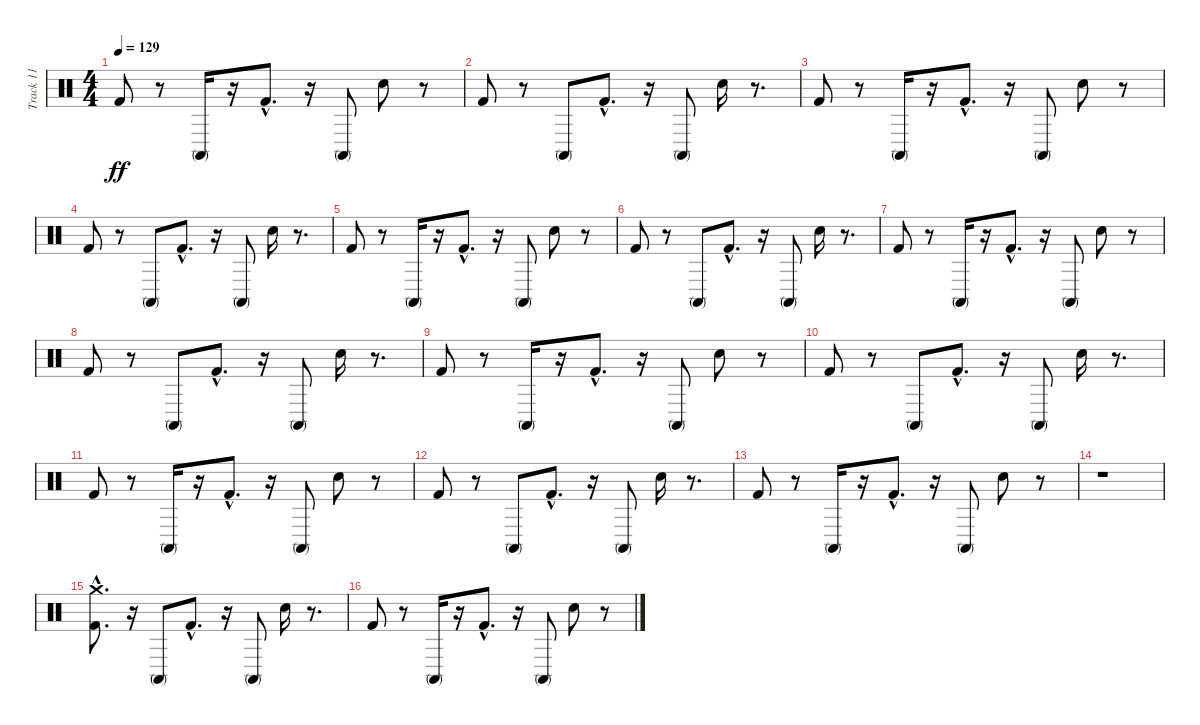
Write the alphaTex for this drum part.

\track ("Track 11" "Track 11") {instrument percussion}
\staff {score}
\articulation defaults
\ts (4 4)
\tempo 129
\clef neutral
\ks c "Kick (hit) 2".8{dy ff}
r.8 "Conga high (mute)".16 r.16 "Kick (hit) 2"{hac}.8{d} r.16 "Conga high (mute)".8 "Snare (hit) 2".8 r.8 |
"Kick (hit) 2".8 r.8 "Conga high (mute)".8 "Kick (hit) 2"{hac}.8{d} r.16 "Conga high (mute)".8 "Snare (hit) 2".16 r.8{d} |
"Kick (hit) 2".8 r.8 "Conga high (mute)".16 r.16 "Kick (hit) 2"{hac}.8{d} r.16 "Conga high (mute)".8 "Snare (hit) 2".8 r.8 |
"Kick (hit) 2".8 r.8 "Conga high (mute)".8 "Kick (hit) 2"{hac}.8{d} r.16 "Conga high (mute)".8 "Snare (hit) 2".16 r.8{d} |
"Kick (hit) 2".8 r.8 "Conga high (mute)".16 r.16 "Kick (hit) 2"{hac}.8{d} r.16 "Conga high (mute)".8 "Snare (hit) 2".8 r.8 |
"Kick (hit) 2".8 r.8 "Conga high (mute)".8 "Kick (hit) 2"{hac}.8{d} r.16 "Conga high (mute)".8 "Snare (hit) 2".16 r.8{d} |
"Kick (hit) 2".8 r.8 "Conga high (mute)".16 r.16 "Kick (hit) 2"{hac}.8{d} r.16 "Conga high (mute)".8 "Snare (hit) 2".8 r.8 |
"Kick (hit) 2".8 r.8 "Conga high (mute)".8 "Kick (hit) 2"{hac}.8{d} r.16 "Conga high (mute)".8 "Snare (hit) 2".16 r.8{d} |
"Kick (hit) 2".8 r.8 "Conga high (mute)".16 r.16 "Kick (hit) 2"{hac}.8{d} r.16 "Conga high (mute)".8 "Snare (hit) 2".8 r.8 |
"Kick (hit) 2".8 r.8 "Conga high (mute)".8 "Kick (hit) 2"{hac}.8{d} r.16 "Conga high (mute)".8 "Snare (hit) 2".16 r.8{d} |
"Kick (hit) 2".8 r.8 "Conga high (mute)".16 r.16 "Kick (hit) 2"{hac}.8{d} r.16 "Conga high (mute)".8 "Snare (hit) 2".8 r.8 |
"Kick (hit) 2".8 r.8 "Conga high (mute)".8 "Kick (hit) 2"{hac}.8{d} r.16 "Conga high (mute)".8 "Snare (hit) 2".16 r.8{d} |
"Kick (hit) 2".8 r.8 "Conga high (mute)".16 r.16 "Kick (hit) 2"{hac}.8{d} r.16 "Conga high (mute)".8 "Snare (hit) 2".8 r.8 |
r.1 |
("Crash medium (hit)"{hac} "Kick (hit) 2").8{d} r.16 "Conga high (mute)".8 "Kick (hit) 2"{hac}.8{d} r.16 "Conga high (mute)".8 "Snare (hit) 2".16 r.8{d} |
"Kick (hit) 2".8 r.8 "Conga high (mute)".16 r.16 "Kick (hit) 2"{hac}.8{d} r.16 "Conga high (mute)".8 "Snare (hit) 2".8 r.8
